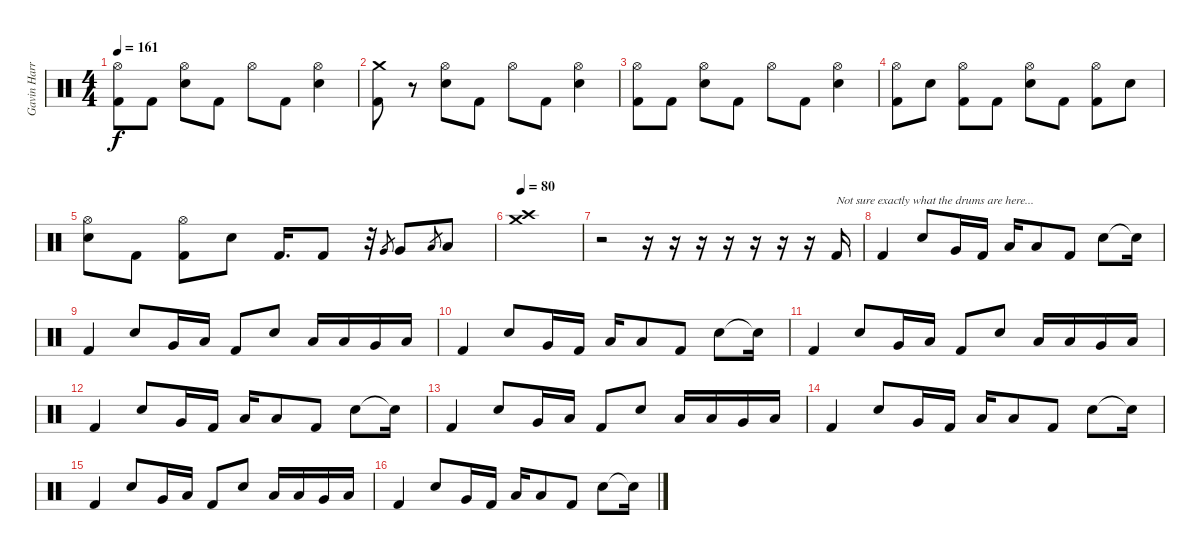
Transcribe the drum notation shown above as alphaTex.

\track ("Gavin Harrison (Drums)" "Gavin Harr") {instrument percussion}
\staff {score}
\articulation defaults
\ts (4 4)
\tempo 161
\clef neutral
\ks c
("Hi-Hat (open)" "Kick (hit) 2").8{dy f} "Kick (hit) 2".8 ("Hi-Hat (open)" "Electric Snare (hit)").8 "Kick (hit) 2".8 "Hi-Hat (open)".8 "Kick (hit) 2".8 ("Hi-Hat (open)" "Electric Snare (hit)").4 |
("Crash medium (hit)" "Kick (hit) 2").8 r.8 ("Hi-Hat (open)" "Electric Snare (hit)").8 "Kick (hit) 2".8 "Hi-Hat (open)".8 "Kick (hit) 2".8 ("Hi-Hat (open)" "Electric Snare (hit)").4 |
("Hi-Hat (open)" "Kick (hit) 2").8 "Kick (hit) 2".8 ("Hi-Hat (open)" "Electric Snare (hit)").8 "Kick (hit) 2".8 "Hi-Hat (open)".8 "Kick (hit) 2".8 ("Hi-Hat (open)" "Electric Snare (hit)").4 |
("Hi-Hat (open)" "Kick (hit) 2").8 "Electric Snare (hit)".8 ("Hi-Hat (open)" "Kick (hit) 2").8 "Kick (hit) 2".8 ("Hi-Hat (open)" "Electric Snare (hit)").8 "Kick (hit) 2".8 ("Hi-Hat (open)" "Kick (hit) 2").8 "Electric Snare (hit)".8 |
("Hi-Hat (open)" "Electric Snare (hit)").8 "Kick (hit) 2".8 ("Hi-Hat (open)" "Kick (hit) 2").8 "Electric Snare (hit)".8 "Kick (hit) 2".16{d} "Kick (hit) 2".8 r.32 "Very Low Tom (hit)".8{gr} "Very Low Tom (hit)".8 "Low Floor Tom (hit)".8{gr} "Low Floor Tom (hit)".8 |
\tempo 80
("Crash medium (hit)" "Crash high (hit)").1 |
r.2{volume 10} r.16 r.16 r.16 r.16 r.16 r.16 r.16 "Kick (hit) 2".16{txt "Not sure exactly what the drums are here..."} |
"Kick (hit) 2".4 "Snare (hit) 2".8 "Very Low Tom (hit)".16 "Kick (hit) 2".16 "Low Floor Tom (hit)".16 "Low Floor Tom (hit)".8 "Kick (hit) 2".8 "Snare (hit) 2".8 "Snare (hit)"{t}.16 |
"Kick (hit) 2".4 "Snare (hit) 2".8 "Very Low Tom (hit)".16 "Low Floor Tom (hit)".16 "Kick (hit) 2".8 "Snare (hit) 2".8 "Low Tom (hit)".16 "Low Tom (hit)".16 "Very Low Tom (hit)".16 "Low Floor Tom (hit)".16 |
"Kick (hit) 2".4 "Snare (hit) 2".8 "Very Low Tom (hit)".16 "Kick (hit) 2".16 "Low Floor Tom (hit)".16 "Low Floor Tom (hit)".8 "Kick (hit) 2".8 "Snare (hit) 2".8 "Snare (hit)"{t}.16 |
"Kick (hit) 2".4 "Snare (hit) 2".8 "Very Low Tom (hit)".16 "Low Floor Tom (hit)".16 "Kick (hit) 2".8 "Snare (hit) 2".8 "Low Tom (hit)".16 "Low Tom (hit)".16 "Very Low Tom (hit)".16 "Low Floor Tom (hit)".16 |
"Kick (hit) 2".4 "Snare (hit) 2".8 "Very Low Tom (hit)".16 "Kick (hit) 2".16 "Low Floor Tom (hit)".16 "Low Floor Tom (hit)".8 "Kick (hit) 2".8 "Snare (hit) 2".8 "Snare (hit)"{t}.16 |
"Kick (hit) 2".4 "Snare (hit) 2".8 "Very Low Tom (hit)".16 "Low Floor Tom (hit)".16 "Kick (hit) 2".8 "Snare (hit) 2".8 "Low Tom (hit)".16 "Low Tom (hit)".16 "Very Low Tom (hit)".16 "Low Floor Tom (hit)".16 |
"Kick (hit) 2".4 "Snare (hit) 2".8 "Very Low Tom (hit)".16 "Kick (hit) 2".16 "Low Floor Tom (hit)".16 "Low Floor Tom (hit)".8 "Kick (hit) 2".8 "Snare (hit) 2".8 "Snare (hit)"{t}.16 |
"Kick (hit) 2".4 "Snare (hit) 2".8 "Very Low Tom (hit)".16 "Low Floor Tom (hit)".16 "Kick (hit) 2".8 "Snare (hit) 2".8 "Low Tom (hit)".16 "Low Tom (hit)".16 "Very Low Tom (hit)".16 "Low Floor Tom (hit)".16 |
"Kick (hit) 2".4 "Snare (hit) 2".8 "Very Low Tom (hit)".16 "Kick (hit) 2".16 "Low Floor Tom (hit)".16 "Low Floor Tom (hit)".8 "Kick (hit) 2".8 "Snare (hit) 2".8 "Snare (hit)"{t}.16
